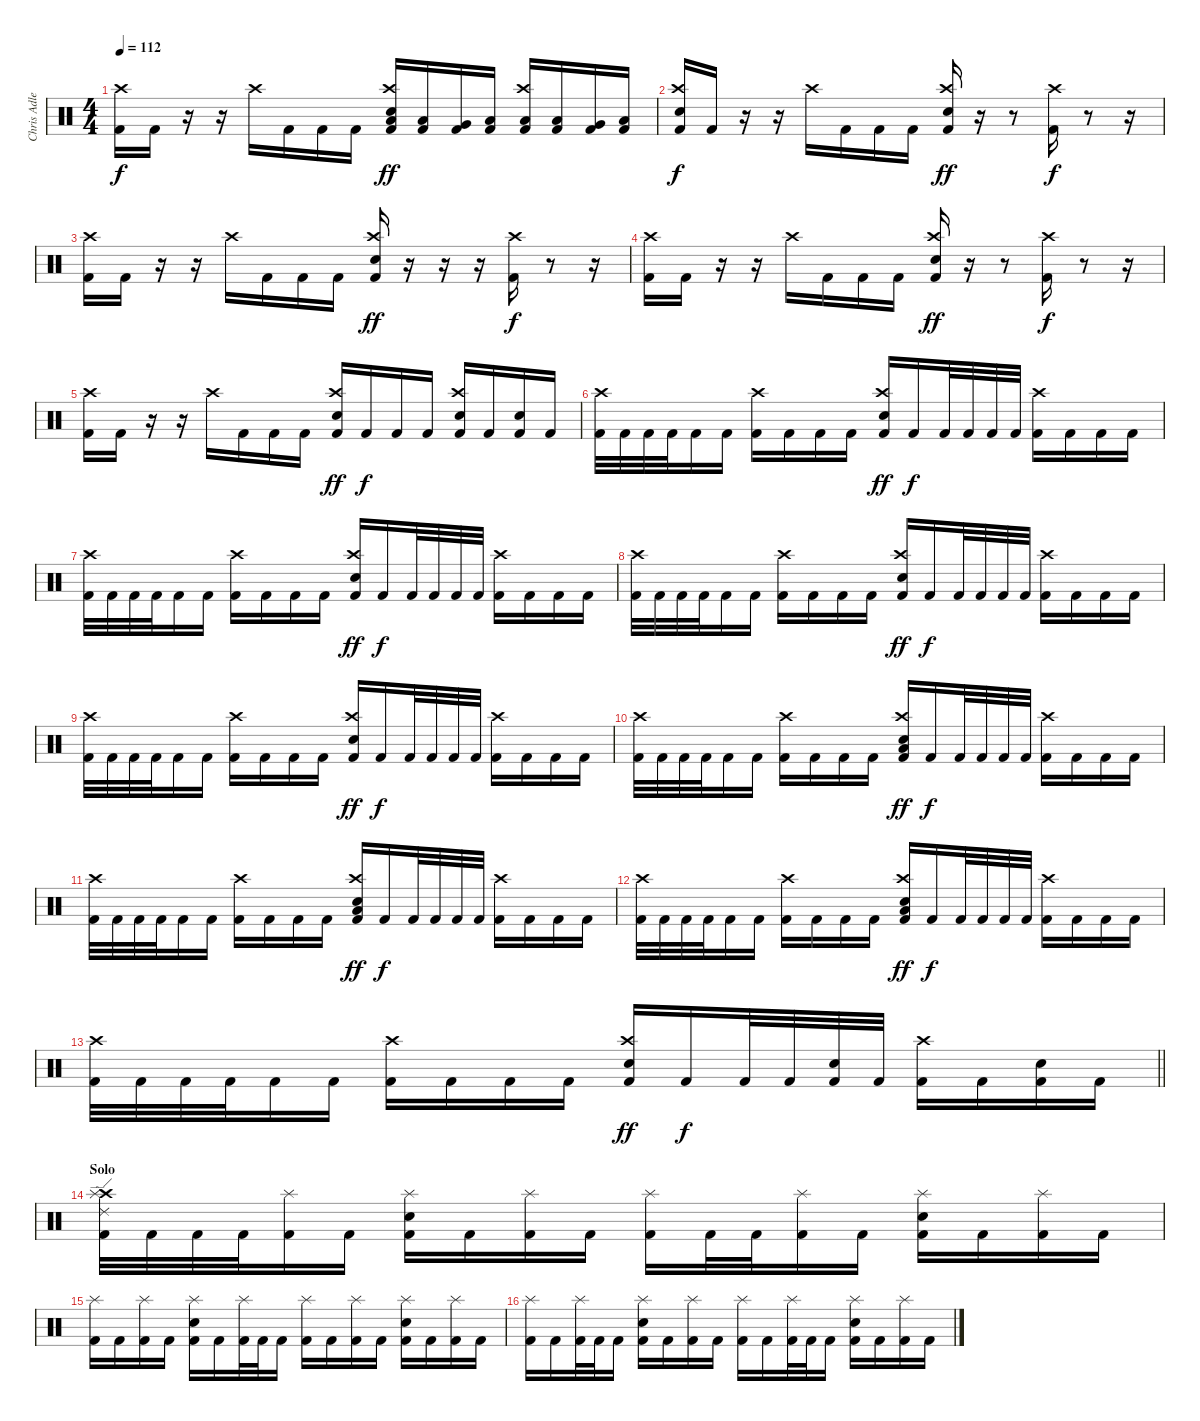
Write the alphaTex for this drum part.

\track ("Chris Adler" "Chris Adle") {instrument percussion}
\staff {score}
\articulation defaults
\ts (4 4)
\tempo 112
\clef neutral
\ks c
("Kick (hit) 2" "Crash high (hit)").16{dy f} "Kick (hit) 2".16 r.16 r.16 "Crash high (hit)".16 "Kick (hit) 2".16 "Kick (hit) 2".16 "Kick (hit) 2".16 ("Kick (hit) 2" "Low Floor Tom (hit)" "Electric Snare (hit)" "Crash high (hit)").16{dy ff} ("Kick (hit) 2" "Low Tom (hit)").16 ("Kick (hit) 2" "Very Low Tom (hit)").16 ("Kick (hit) 2" "Low Floor Tom (hit)").16 ("Kick (hit) 2" "Low Floor Tom (hit)" "Crash high (hit)").16 ("Kick (hit) 2" "Low Tom (hit)").16 ("Kick (hit) 2" "Very Low Tom (hit)").16 ("Kick (hit) 2" "Low Floor Tom (hit)").16 |
("Kick (hit) 2" "Electric Snare (hit)" "Crash high (hit)").16{dy f} "Kick (hit) 2".16 r.16 r.16 "Crash high (hit)".16 "Kick (hit) 2".16 "Kick (hit) 2".16 "Kick (hit) 2".16 ("Kick (hit) 2" "Electric Snare (hit)" "Crash high (hit)").16{dy ff} r.16 r.8 ("Kick (hit) 2" "Crash high (hit)").16{dy f} r.8 r.16 |
("Kick (hit) 2" "Crash high (hit)").16 "Kick (hit) 2".16 r.16 r.16 "Crash high (hit)".16 "Kick (hit) 2".16 "Kick (hit) 2".16 "Kick (hit) 2".16 ("Kick (hit) 2" "Electric Snare (hit)" "Crash high (hit)").16{dy ff} r.16 r.16 r.16 ("Kick (hit) 2" "Crash high (hit)").16{dy f} r.8 r.16 |
("Kick (hit) 2" "Crash high (hit)").16 "Kick (hit) 2".16 r.16 r.16 "Crash high (hit)".16 "Kick (hit) 2".16 "Kick (hit) 2".16 "Kick (hit) 2".16 ("Kick (hit) 2" "Electric Snare (hit)" "Crash high (hit)").16{dy ff} r.16 r.8 ("Kick (hit) 2" "Crash high (hit)").16{dy f} r.8 r.16 |
("Kick (hit) 2" "Crash high (hit)").16 "Kick (hit) 2".16 r.16 r.16 "Crash high (hit)".16 "Kick (hit) 2".16 "Kick (hit) 2".16 "Kick (hit) 2".16 ("Kick (hit) 2" "Electric Snare (hit)" "Crash high (hit)").16{dy ff} "Kick (hit) 2".16{dy f} "Kick (hit) 2".16 "Kick (hit) 2".16 ("Kick (hit) 2" "Electric Snare (hit)" "Crash high (hit)").16 "Kick (hit) 2".16 ("Kick (hit) 2" "Electric Snare (hit)").16 "Kick (hit) 2".16 |
("Kick (hit) 2" "Crash high (hit)").32 "Kick (hit) 2".32 "Kick (hit) 2".32 "Kick (hit) 2".32 "Kick (hit) 2".16 "Kick (hit) 2".16 ("Kick (hit) 2" "Crash high (hit)").16 "Kick (hit) 2".16 "Kick (hit) 2".16 "Kick (hit) 2".16 ("Kick (hit) 2" "Electric Snare (hit)" "Crash high (hit)").16{dy ff} "Kick (hit) 2".16{dy f} "Kick (hit) 2".32 "Kick (hit) 2".32 "Kick (hit) 2".32 "Kick (hit) 2".32 ("Kick (hit) 2" "Crash high (hit)").16 "Kick (hit) 2".16 "Kick (hit) 2".16 "Kick (hit) 2".16 |
("Kick (hit) 2" "Crash high (hit)").32 "Kick (hit) 2".32 "Kick (hit) 2".32 "Kick (hit) 2".32 "Kick (hit) 2".16 "Kick (hit) 2".16 ("Kick (hit) 2" "Crash high (hit)").16 "Kick (hit) 2".16 "Kick (hit) 2".16 "Kick (hit) 2".16 ("Kick (hit) 2" "Electric Snare (hit)" "Crash high (hit)").16{dy ff} "Kick (hit) 2".16{dy f} "Kick (hit) 2".32 "Kick (hit) 2".32 "Kick (hit) 2".32 "Kick (hit) 2".32 ("Kick (hit) 2" "Crash high (hit)").16 "Kick (hit) 2".16 "Kick (hit) 2".16 "Kick (hit) 2".16 |
("Kick (hit) 2" "Crash high (hit)").32 "Kick (hit) 2".32 "Kick (hit) 2".32 "Kick (hit) 2".32 "Kick (hit) 2".16 "Kick (hit) 2".16 ("Kick (hit) 2" "Crash high (hit)").16 "Kick (hit) 2".16 "Kick (hit) 2".16 "Kick (hit) 2".16 ("Kick (hit) 2" "Electric Snare (hit)" "Crash high (hit)").16{dy ff} "Kick (hit) 2".16{dy f} "Kick (hit) 2".32 "Kick (hit) 2".32 "Kick (hit) 2".32 "Kick (hit) 2".32 ("Kick (hit) 2" "Crash high (hit)").16 "Kick (hit) 2".16 "Kick (hit) 2".16 "Kick (hit) 2".16 |
("Kick (hit) 2" "Crash high (hit)").32 "Kick (hit) 2".32 "Kick (hit) 2".32 "Kick (hit) 2".32 "Kick (hit) 2".16 "Kick (hit) 2".16 ("Kick (hit) 2" "Crash high (hit)").16 "Kick (hit) 2".16 "Kick (hit) 2".16 "Kick (hit) 2".16 ("Kick (hit) 2" "Electric Snare (hit)" "Crash high (hit)").16{dy ff} "Kick (hit) 2".16{dy f} "Kick (hit) 2".32 "Kick (hit) 2".32 "Kick (hit) 2".32 "Kick (hit) 2".32 ("Kick (hit) 2" "Crash high (hit)").16 "Kick (hit) 2".16 "Kick (hit) 2".16 "Kick (hit) 2".16 |
("Kick (hit) 2" "Crash high (hit)").32 "Kick (hit) 2".32 "Kick (hit) 2".32 "Kick (hit) 2".32 "Kick (hit) 2".16 "Kick (hit) 2".16 ("Kick (hit) 2" "Crash high (hit)").16 "Kick (hit) 2".16 "Kick (hit) 2".16 "Kick (hit) 2".16 ("Kick (hit) 2" "Low Floor Tom (hit)" "Electric Snare (hit)" "Crash high (hit)").16{dy ff} "Kick (hit) 2".16{dy f} "Kick (hit) 2".32 "Kick (hit) 2".32 "Kick (hit) 2".32 "Kick (hit) 2".32 ("Kick (hit) 2" "Crash high (hit)").16 "Kick (hit) 2".16 "Kick (hit) 2".16 "Kick (hit) 2".16 |
("Kick (hit) 2" "Crash high (hit)").32 "Kick (hit) 2".32 "Kick (hit) 2".32 "Kick (hit) 2".32 "Kick (hit) 2".16 "Kick (hit) 2".16 ("Kick (hit) 2" "Crash high (hit)").16 "Kick (hit) 2".16 "Kick (hit) 2".16 "Kick (hit) 2".16 ("Kick (hit) 2" "Low Floor Tom (hit)" "Electric Snare (hit)" "Crash high (hit)").16{dy ff} "Kick (hit) 2".16{dy f} "Kick (hit) 2".32 "Kick (hit) 2".32 "Kick (hit) 2".32 "Kick (hit) 2".32 ("Kick (hit) 2" "Crash high (hit)").16 "Kick (hit) 2".16 "Kick (hit) 2".16 "Kick (hit) 2".16 |
("Kick (hit) 2" "Crash high (hit)").32 "Kick (hit) 2".32 "Kick (hit) 2".32 "Kick (hit) 2".32 "Kick (hit) 2".16 "Kick (hit) 2".16 ("Kick (hit) 2" "Crash high (hit)").16 "Kick (hit) 2".16 "Kick (hit) 2".16 "Kick (hit) 2".16 ("Kick (hit) 2" "Low Floor Tom (hit)" "Electric Snare (hit)" "Crash high (hit)").16{dy ff} "Kick (hit) 2".16{dy f} "Kick (hit) 2".32 "Kick (hit) 2".32 "Kick (hit) 2".32 "Kick (hit) 2".32 ("Kick (hit) 2" "Crash high (hit)").16 "Kick (hit) 2".16 "Kick (hit) 2".16 "Kick (hit) 2".16 |
\barLineRight lightlight
("Kick (hit) 2" "Crash high (hit)").32 "Kick (hit) 2".32 "Kick (hit) 2".32 "Kick (hit) 2".32 "Kick (hit) 2".16 "Kick (hit) 2".16 ("Kick (hit) 2" "Crash high (hit)").16 "Kick (hit) 2".16 "Kick (hit) 2".16 "Kick (hit) 2".16 ("Kick (hit) 2" "Electric Snare (hit)" "Crash high (hit)").16{dy ff} "Kick (hit) 2".16{dy f} "Kick (hit) 2".32 "Kick (hit) 2".32 ("Kick (hit) 2" "Electric Snare (hit)").32 "Kick (hit) 2".32 ("Kick (hit) 2" "Crash high (hit)").16 "Kick (hit) 2".16 ("Kick (hit) 2" "Electric Snare (hit)").16 "Kick (hit) 2".16 |
\section ("" "Solo")
("Kick (hit) 2" "Crash high (hit)" "Ride (edge) 2" "Splash (hit)").32 "Kick (hit) 2".32 "Kick (hit) 2".32 "Kick (hit) 2".32 ("Kick (hit) 2" "Splash (hit)").16 "Kick (hit) 2".16 ("Kick (hit) 2" "Electric Snare (hit)" "Splash (hit)").16 "Kick (hit) 2".16 ("Kick (hit) 2" "Splash (hit)").16 "Kick (hit) 2".16 ("Kick (hit) 2" "Splash (hit)").16 "Kick (hit) 2".32 "Kick (hit) 2".32 ("Kick (hit) 2" "Splash (hit)").16 "Kick (hit) 2".16 ("Kick (hit) 2" "Electric Snare (hit)" "Splash (hit)").16 "Kick (hit) 2".16 ("Kick (hit) 2" "Splash (hit)").16 "Kick (hit) 2".16 |
("Kick (hit) 2" "Splash (hit)").16 "Kick (hit) 2".16 ("Kick (hit) 2" "Splash (hit)").16 "Kick (hit) 2".16 ("Kick (hit) 2" "Electric Snare (hit)" "Splash (hit)").16 "Kick (hit) 2".16 ("Kick (hit) 2" "Splash (hit)").32 "Kick (hit) 2".32 "Kick (hit) 2".16 ("Kick (hit) 2" "Splash (hit)").16 "Kick (hit) 2".16 ("Kick (hit) 2" "Splash (hit)").16 "Kick (hit) 2".16 ("Kick (hit) 2" "Electric Snare (hit)" "Splash (hit)").16 "Kick (hit) 2".16 ("Kick (hit) 2" "Splash (hit)").16 "Kick (hit) 2".16 |
("Kick (hit) 2" "Splash (hit)").16 "Kick (hit) 2".16 ("Kick (hit) 2" "Splash (hit)").32 "Kick (hit) 2".32 "Kick (hit) 2".16 ("Kick (hit) 2" "Electric Snare (hit)" "Splash (hit)").16 "Kick (hit) 2".16 ("Kick (hit) 2" "Splash (hit)").16 "Kick (hit) 2".16 ("Kick (hit) 2" "Splash (hit)").16 "Kick (hit) 2".16 ("Kick (hit) 2" "Splash (hit)").32 "Kick (hit) 2".32 "Kick (hit) 2".16 ("Kick (hit) 2" "Electric Snare (hit)" "Splash (hit)").16 "Kick (hit) 2".16 ("Kick (hit) 2" "Splash (hit)").16 "Kick (hit) 2".16
